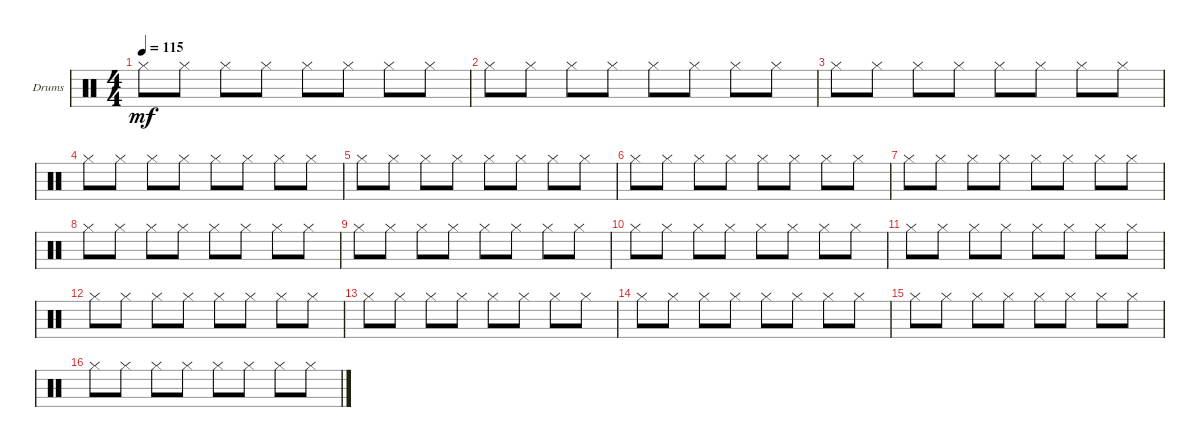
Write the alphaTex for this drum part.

\defaultSystemsLayout 4
\bracketExtendMode groupsimilarinstruments
\firstSystemTrackNameOrientation horizontal
\otherSystemsTrackNameOrientation horizontal
\track ("Drumkit" "Drums") {instrument percussion}
\staff {score}
\articulation defaults
\ts (4 4)
\tempo 115
\clef neutral
\ks c "Hi-Hat (closed)".8{dy mf} "Hi-Hat (closed)".8 "Hi-Hat (closed)".8 "Hi-Hat (closed)".8 "Hi-Hat (closed)".8 "Hi-Hat (closed)".8 "Hi-Hat (closed)".8 "Hi-Hat (closed)".8
|
"Hi-Hat (closed)".8 "Hi-Hat (closed)".8 "Hi-Hat (closed)".8 "Hi-Hat (closed)".8 "Hi-Hat (closed)".8 "Hi-Hat (closed)".8 "Hi-Hat (closed)".8 "Hi-Hat (closed)".8 |
"Hi-Hat (closed)".8 "Hi-Hat (closed)".8 "Hi-Hat (closed)".8 "Hi-Hat (closed)".8 "Hi-Hat (closed)".8 "Hi-Hat (closed)".8 "Hi-Hat (closed)".8 "Hi-Hat (closed)".8 |
"Hi-Hat (closed)".8 "Hi-Hat (closed)".8 "Hi-Hat (closed)".8 "Hi-Hat (closed)".8 "Hi-Hat (closed)".8 "Hi-Hat (closed)".8 "Hi-Hat (closed)".8 "Hi-Hat (closed)".8 |
"Hi-Hat (closed)".8 "Hi-Hat (closed)".8 "Hi-Hat (closed)".8 "Hi-Hat (closed)".8 "Hi-Hat (closed)".8 "Hi-Hat (closed)".8 "Hi-Hat (closed)".8 "Hi-Hat (closed)".8 |
"Hi-Hat (closed)".8 "Hi-Hat (closed)".8 "Hi-Hat (closed)".8 "Hi-Hat (closed)".8 "Hi-Hat (closed)".8 "Hi-Hat (closed)".8 "Hi-Hat (closed)".8 "Hi-Hat (closed)".8 |
"Hi-Hat (closed)".8 "Hi-Hat (closed)".8 "Hi-Hat (closed)".8 "Hi-Hat (closed)".8 "Hi-Hat (closed)".8 "Hi-Hat (closed)".8 "Hi-Hat (closed)".8 "Hi-Hat (closed)".8 |
"Hi-Hat (closed)".8 "Hi-Hat (closed)".8 "Hi-Hat (closed)".8 "Hi-Hat (closed)".8 "Hi-Hat (closed)".8 "Hi-Hat (closed)".8 "Hi-Hat (closed)".8 "Hi-Hat (closed)".8 |
"Hi-Hat (closed)".8 "Hi-Hat (closed)".8 "Hi-Hat (closed)".8 "Hi-Hat (closed)".8 "Hi-Hat (closed)".8 "Hi-Hat (closed)".8 "Hi-Hat (closed)".8 "Hi-Hat (closed)".8 |
"Hi-Hat (closed)".8 "Hi-Hat (closed)".8 "Hi-Hat (closed)".8 "Hi-Hat (closed)".8 "Hi-Hat (closed)".8 "Hi-Hat (closed)".8 "Hi-Hat (closed)".8 "Hi-Hat (closed)".8 |
"Hi-Hat (closed)".8 "Hi-Hat (closed)".8 "Hi-Hat (closed)".8 "Hi-Hat (closed)".8 "Hi-Hat (closed)".8 "Hi-Hat (closed)".8 "Hi-Hat (closed)".8 "Hi-Hat (closed)".8 |
"Hi-Hat (closed)".8 "Hi-Hat (closed)".8 "Hi-Hat (closed)".8 "Hi-Hat (closed)".8 "Hi-Hat (closed)".8 "Hi-Hat (closed)".8 "Hi-Hat (closed)".8 "Hi-Hat (closed)".8 |
"Hi-Hat (closed)".8 "Hi-Hat (closed)".8 "Hi-Hat (closed)".8 "Hi-Hat (closed)".8 "Hi-Hat (closed)".8 "Hi-Hat (closed)".8 "Hi-Hat (closed)".8 "Hi-Hat (closed)".8 |
"Hi-Hat (closed)".8 "Hi-Hat (closed)".8 "Hi-Hat (closed)".8 "Hi-Hat (closed)".8 "Hi-Hat (closed)".8 "Hi-Hat (closed)".8 "Hi-Hat (closed)".8 "Hi-Hat (closed)".8 |
"Hi-Hat (closed)".8 "Hi-Hat (closed)".8 "Hi-Hat (closed)".8 "Hi-Hat (closed)".8 "Hi-Hat (closed)".8 "Hi-Hat (closed)".8 "Hi-Hat (closed)".8 "Hi-Hat (closed)".8 |
"Hi-Hat (closed)".8 "Hi-Hat (closed)".8 "Hi-Hat (closed)".8 "Hi-Hat (closed)".8 "Hi-Hat (closed)".8 "Hi-Hat (closed)".8 "Hi-Hat (closed)".8 "Hi-Hat (closed)".8
